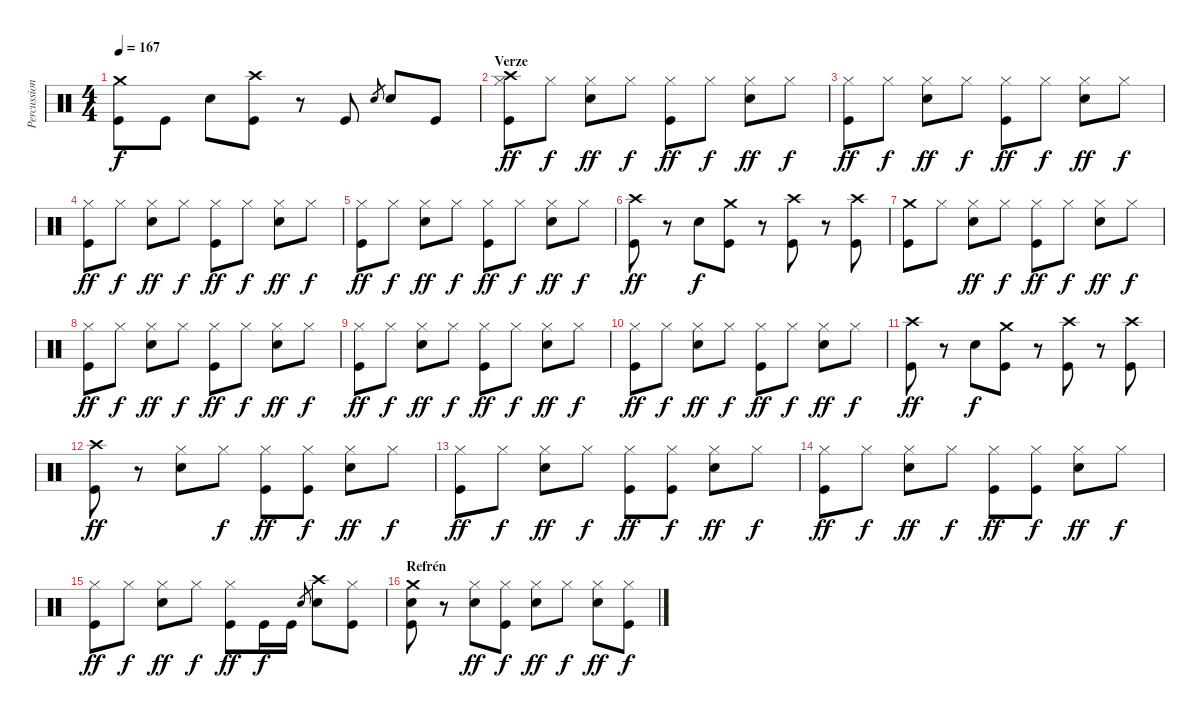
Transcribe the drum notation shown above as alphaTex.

\track ("Percussion" "Percussion") {instrument percussion}
\staff {score}
\articulation defaults
\ts (4 4)
\tempo 167
\clef neutral
\ks c
("Crash medium (hit)" "Kick (hit)").8{dy f} "Kick (hit)".8 "Electric Snare (hit)".8 ("Crash high (hit)" "Kick (hit)").8 r.8 "Kick (hit)".8 "Electric Snare (hit)".8{gr} "Electric Snare (hit)".8 "Kick (hit)".8 |
\section ("" "Verze")
("Hi-Hat (closed)" "Kick (hit)" "Crash high (hit)").8{dy ff} "Hi-Hat (closed)".8{dy f} ("Hi-Hat (closed)" "Electric Snare (hit)").8{dy ff} "Hi-Hat (closed)".8{dy f} ("Hi-Hat (closed)" "Kick (hit)").8{dy ff} "Hi-Hat (closed)".8{dy f} ("Hi-Hat (closed)" "Electric Snare (hit)").8{dy ff} "Hi-Hat (closed)".8{dy f} |
("Hi-Hat (closed)" "Kick (hit)").8{dy ff} "Hi-Hat (closed)".8{dy f} ("Hi-Hat (closed)" "Electric Snare (hit)").8{dy ff} "Hi-Hat (closed)".8{dy f} ("Hi-Hat (closed)" "Kick (hit)").8{dy ff} "Hi-Hat (closed)".8{dy f} ("Hi-Hat (closed)" "Electric Snare (hit)").8{dy ff} "Hi-Hat (closed)".8{dy f} |
("Hi-Hat (closed)" "Kick (hit)").8{dy ff} "Hi-Hat (closed)".8{dy f} ("Hi-Hat (closed)" "Electric Snare (hit)").8{dy ff} "Hi-Hat (closed)".8{dy f} ("Hi-Hat (closed)" "Kick (hit)").8{dy ff} "Hi-Hat (closed)".8{dy f} ("Hi-Hat (closed)" "Electric Snare (hit)").8{dy ff} "Hi-Hat (closed)".8{dy f} |
("Hi-Hat (closed)" "Kick (hit)").8{dy ff} "Hi-Hat (closed)".8{dy f} ("Hi-Hat (closed)" "Electric Snare (hit)").8{dy ff} "Hi-Hat (closed)".8{dy f} ("Hi-Hat (closed)" "Kick (hit)").8{dy ff} "Hi-Hat (closed)".8{dy f} ("Hi-Hat (closed)" "Electric Snare (hit)").8{dy ff} "Hi-Hat (closed)".8{dy f} |
("Crash high (hit)" "Kick (hit)").8{dy ff} r.8 "Electric Snare (hit)".8{dy f} ("Crash medium (hit)" "Kick (hit)").8 r.8 ("Crash high (hit)" "Kick (hit)").8 r.8 ("Crash high (hit)" "Kick (hit)").8 |
("Kick (hit)" "Crash medium (hit)").8 "Hi-Hat (closed)".8 ("Hi-Hat (closed)" "Electric Snare (hit)").8{dy ff} "Hi-Hat (closed)".8{dy f} ("Hi-Hat (closed)" "Kick (hit)").8{dy ff} "Hi-Hat (closed)".8{dy f} ("Hi-Hat (closed)" "Electric Snare (hit)").8{dy ff} "Hi-Hat (closed)".8{dy f} |
("Hi-Hat (closed)" "Kick (hit)").8{dy ff} "Hi-Hat (closed)".8{dy f} ("Hi-Hat (closed)" "Electric Snare (hit)").8{dy ff} "Hi-Hat (closed)".8{dy f} ("Hi-Hat (closed)" "Kick (hit)").8{dy ff} "Hi-Hat (closed)".8{dy f} ("Hi-Hat (closed)" "Electric Snare (hit)").8{dy ff} "Hi-Hat (closed)".8{dy f} |
("Hi-Hat (closed)" "Kick (hit)").8{dy ff} "Hi-Hat (closed)".8{dy f} ("Hi-Hat (closed)" "Electric Snare (hit)").8{dy ff} "Hi-Hat (closed)".8{dy f} ("Hi-Hat (closed)" "Kick (hit)").8{dy ff} "Hi-Hat (closed)".8{dy f} ("Hi-Hat (closed)" "Electric Snare (hit)").8{dy ff} "Hi-Hat (closed)".8{dy f} |
("Hi-Hat (closed)" "Kick (hit)").8{dy ff} "Hi-Hat (closed)".8{dy f} ("Hi-Hat (closed)" "Electric Snare (hit)").8{dy ff} "Hi-Hat (closed)".8{dy f} ("Hi-Hat (closed)" "Kick (hit)").8{dy ff} "Hi-Hat (closed)".8{dy f} ("Hi-Hat (closed)" "Electric Snare (hit)").8{dy ff} "Hi-Hat (closed)".8{dy f} |
("Crash high (hit)" "Kick (hit)").8{dy ff} r.8 "Electric Snare (hit)".8{dy f} ("Crash medium (hit)" "Kick (hit)").8 r.8 ("Crash high (hit)" "Kick (hit)").8 r.8 ("Crash high (hit)" "Kick (hit)").8 |
("Crash high (hit)" "Kick (hit)").8{dy ff} r.8 ("Hi-Hat (closed)" "Electric Snare (hit)").8 "Hi-Hat (closed)".8{dy f} ("Hi-Hat (closed)" "Kick (hit)").8{dy ff} ("Hi-Hat (closed)" "Kick (hit)").8{dy f} ("Hi-Hat (closed)" "Electric Snare (hit)").8{dy ff} "Hi-Hat (closed)".8{dy f} |
("Hi-Hat (closed)" "Kick (hit)").8{dy ff} "Hi-Hat (closed)".8{dy f} ("Hi-Hat (closed)" "Electric Snare (hit)").8{dy ff} "Hi-Hat (closed)".8{dy f} ("Hi-Hat (closed)" "Kick (hit)").8{dy ff} ("Hi-Hat (closed)" "Kick (hit)").8{dy f} ("Hi-Hat (closed)" "Electric Snare (hit)").8{dy ff} "Hi-Hat (closed)".8{dy f} |
("Hi-Hat (closed)" "Kick (hit)").8{dy ff} "Hi-Hat (closed)".8{dy f} ("Hi-Hat (closed)" "Electric Snare (hit)").8{dy ff} "Hi-Hat (closed)".8{dy f} ("Hi-Hat (closed)" "Kick (hit)").8{dy ff} ("Hi-Hat (closed)" "Kick (hit)").8{dy f} ("Hi-Hat (closed)" "Electric Snare (hit)").8{dy ff} "Hi-Hat (closed)".8{dy f} |
("Hi-Hat (closed)" "Kick (hit)").8{dy ff} "Hi-Hat (closed)".8{dy f} ("Hi-Hat (closed)" "Electric Snare (hit)").8{dy ff} "Hi-Hat (closed)".8{dy f} ("Hi-Hat (closed)" "Kick (hit)").8{dy ff} "Kick (hit)".16{dy f} "Kick (hit)".16 "Electric Snare (hit)".8{gr} ("Crash high (hit)" "Electric Snare (hit)").8 ("Hi-Hat (closed)" "Kick (hit)").8 |
\section ("" "Refrén")
("Crash medium (hit)" "Kick (hit)" "Electric Snare (hit)").8 r.8 ("Hi-Hat (closed)" "Electric Snare (hit)").8{dy ff} ("Hi-Hat (closed)" "Kick (hit)").8{dy f} ("Hi-Hat (closed)" "Electric Snare (hit)").8{dy ff} "Hi-Hat (closed)".8{dy f} ("Hi-Hat (closed)" "Electric Snare (hit)").8{dy ff} ("Hi-Hat (closed)" "Kick (hit)").8{dy f}
